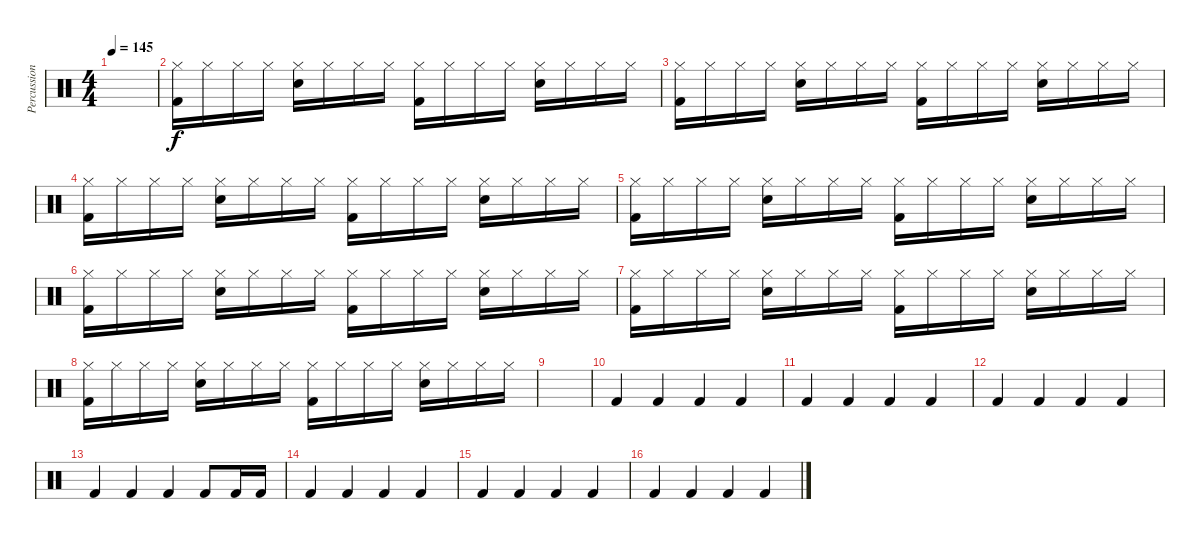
\track ("Percussion" "Percussion") {instrument percussion}
\staff {score}
\articulation defaults
\ts (4 4)
\tempo 145
\clef neutral
\ks c
|
("Hi-Hat (closed)" "Kick (hit) 2").16 "Hi-Hat (closed)".16 "Hi-Hat (closed)".16 "Hi-Hat (closed)".16 ("Hi-Hat (closed)" "Electric Snare (hit)").16 "Hi-Hat (closed)".16 "Hi-Hat (closed)".16 "Hi-Hat (closed)".16 ("Hi-Hat (closed)" "Kick (hit) 2").16 "Hi-Hat (closed)".16 "Hi-Hat (closed)".16 "Hi-Hat (closed)".16 ("Hi-Hat (closed)" "Electric Snare (hit)").16 "Hi-Hat (closed)".16 "Hi-Hat (closed)".16 "Hi-Hat (closed)".16 |
("Hi-Hat (closed)" "Kick (hit) 2").16 "Hi-Hat (closed)".16 "Hi-Hat (closed)".16 "Hi-Hat (closed)".16 ("Hi-Hat (closed)" "Electric Snare (hit)").16 "Hi-Hat (closed)".16 "Hi-Hat (closed)".16 "Hi-Hat (closed)".16 ("Hi-Hat (closed)" "Kick (hit) 2").16 "Hi-Hat (closed)".16 "Hi-Hat (closed)".16 "Hi-Hat (closed)".16 ("Hi-Hat (closed)" "Electric Snare (hit)").16 "Hi-Hat (closed)".16 "Hi-Hat (closed)".16 "Hi-Hat (closed)".16 |
("Hi-Hat (closed)" "Kick (hit) 2").16 "Hi-Hat (closed)".16 "Hi-Hat (closed)".16 "Hi-Hat (closed)".16 ("Hi-Hat (closed)" "Electric Snare (hit)").16 "Hi-Hat (closed)".16 "Hi-Hat (closed)".16 "Hi-Hat (closed)".16 ("Hi-Hat (closed)" "Kick (hit) 2").16 "Hi-Hat (closed)".16 "Hi-Hat (closed)".16 "Hi-Hat (closed)".16 ("Hi-Hat (closed)" "Electric Snare (hit)").16 "Hi-Hat (closed)".16 "Hi-Hat (closed)".16 "Hi-Hat (closed)".16 |
("Hi-Hat (closed)" "Kick (hit) 2").16 "Hi-Hat (closed)".16 "Hi-Hat (closed)".16 "Hi-Hat (closed)".16 ("Hi-Hat (closed)" "Electric Snare (hit)").16 "Hi-Hat (closed)".16 "Hi-Hat (closed)".16 "Hi-Hat (closed)".16 ("Hi-Hat (closed)" "Kick (hit) 2").16 "Hi-Hat (closed)".16 "Hi-Hat (closed)".16 "Hi-Hat (closed)".16 ("Hi-Hat (closed)" "Electric Snare (hit)").16 "Hi-Hat (closed)".16 "Hi-Hat (closed)".16 "Hi-Hat (closed)".16 |
("Hi-Hat (closed)" "Kick (hit) 2").16 "Hi-Hat (closed)".16 "Hi-Hat (closed)".16 "Hi-Hat (closed)".16 ("Hi-Hat (closed)" "Electric Snare (hit)").16 "Hi-Hat (closed)".16 "Hi-Hat (closed)".16 "Hi-Hat (closed)".16 ("Hi-Hat (closed)" "Kick (hit) 2").16 "Hi-Hat (closed)".16 "Hi-Hat (closed)".16 "Hi-Hat (closed)".16 ("Hi-Hat (closed)" "Electric Snare (hit)").16 "Hi-Hat (closed)".16 "Hi-Hat (closed)".16 "Hi-Hat (closed)".16 |
("Hi-Hat (closed)" "Kick (hit) 2").16 "Hi-Hat (closed)".16 "Hi-Hat (closed)".16 "Hi-Hat (closed)".16 ("Hi-Hat (closed)" "Electric Snare (hit)").16 "Hi-Hat (closed)".16 "Hi-Hat (closed)".16 "Hi-Hat (closed)".16 ("Hi-Hat (closed)" "Kick (hit) 2").16 "Hi-Hat (closed)".16 "Hi-Hat (closed)".16 "Hi-Hat (closed)".16 ("Hi-Hat (closed)" "Electric Snare (hit)").16 "Hi-Hat (closed)".16 "Hi-Hat (closed)".16 "Hi-Hat (closed)".16 |
("Hi-Hat (closed)" "Kick (hit) 2").16 "Hi-Hat (closed)".16 "Hi-Hat (closed)".16 "Hi-Hat (closed)".16 ("Hi-Hat (closed)" "Electric Snare (hit)").16 "Hi-Hat (closed)".16 "Hi-Hat (closed)".16 "Hi-Hat (closed)".16 ("Hi-Hat (closed)" "Kick (hit) 2").16 "Hi-Hat (closed)".16 "Hi-Hat (closed)".16 "Hi-Hat (closed)".16 ("Hi-Hat (closed)" "Electric Snare (hit)").16 "Hi-Hat (closed)".16 "Hi-Hat (closed)".16 "Hi-Hat (closed)".16 |
|
"Kick (hit) 2".4 "Kick (hit) 2".4 "Kick (hit) 2".4 "Kick (hit) 2".4 |
"Kick (hit) 2".4 "Kick (hit) 2".4 "Kick (hit) 2".4 "Kick (hit) 2".4 |
"Kick (hit) 2".4 "Kick (hit) 2".4 "Kick (hit) 2".4 "Kick (hit) 2".4 |
"Kick (hit) 2".4 "Kick (hit) 2".4 "Kick (hit) 2".4 "Kick (hit) 2".8 "Kick (hit) 2".16 "Kick (hit) 2".16 |
"Kick (hit) 2".4 "Kick (hit) 2".4 "Kick (hit) 2".4 "Kick (hit) 2".4 |
"Kick (hit) 2".4 "Kick (hit) 2".4 "Kick (hit) 2".4 "Kick (hit) 2".4 |
"Kick (hit) 2".4 "Kick (hit) 2".4 "Kick (hit) 2".4 "Kick (hit) 2".4
